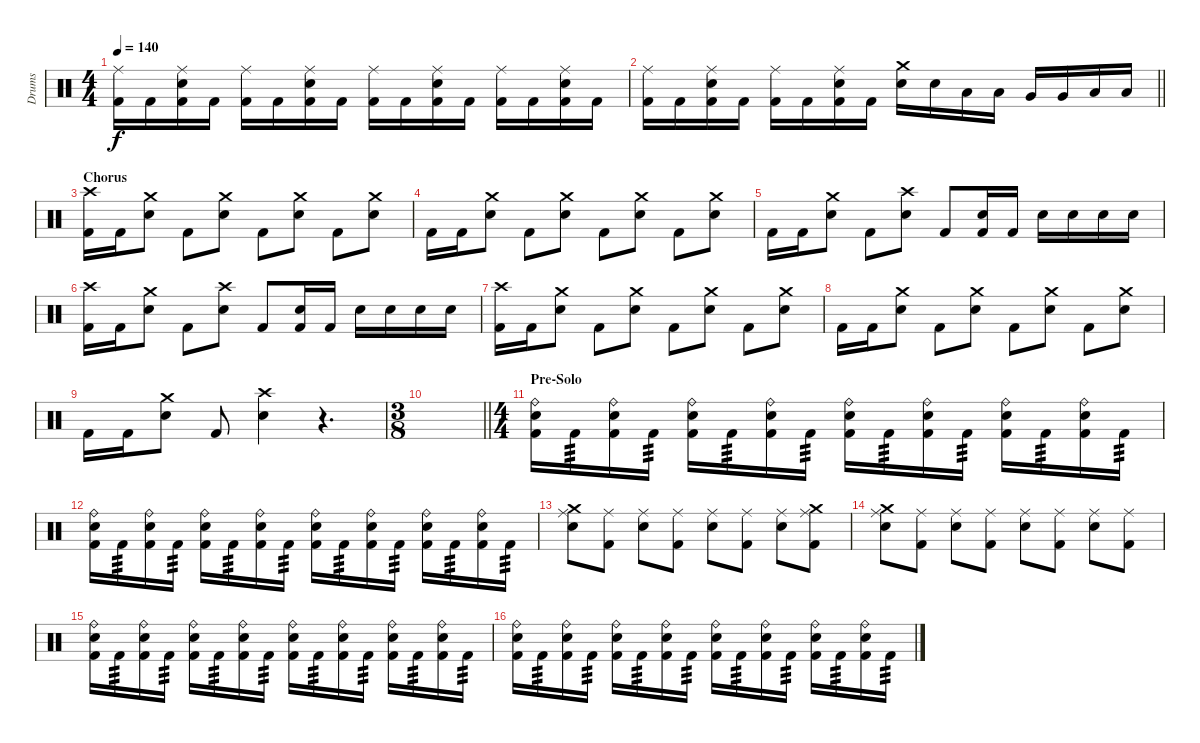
\track ("Drums" "Drums") {instrument percussion}
\staff {score}
\articulation defaults
\ts (4 4)
\tempo 140
\clef neutral
\ks c
("Kick (hit) 2" "Ride (middle)").16{dy f} "Kick (hit) 2".16 ("Snare (hit) 2" "Kick (hit) 2" "Ride (middle)").16 "Kick (hit) 2".16 ("Kick (hit) 2" "Ride (middle)").16 "Kick (hit) 2".16 ("Snare (hit) 2" "Kick (hit) 2" "Ride (middle)").16 "Kick (hit) 2".16 ("Kick (hit) 2" "Ride (middle)").16 "Kick (hit) 2".16 ("Snare (hit) 2" "Kick (hit) 2" "Ride (middle)").16 "Kick (hit) 2".16 ("Kick (hit) 2" "Ride (middle)").16 "Kick (hit) 2".16 ("Snare (hit) 2" "Kick (hit) 2" "Ride (middle)").16 "Kick (hit) 2".16 |
\barLineRight lightlight
("Kick (hit) 2" "Ride (middle)").16 "Kick (hit) 2".16 ("Snare (hit) 2" "Kick (hit) 2" "Ride (middle)").16 "Kick (hit) 2".16 ("Kick (hit) 2" "Ride (middle)").16 "Kick (hit) 2".16 ("Snare (hit) 2" "Kick (hit) 2" "Ride (middle)").16 "Kick (hit) 2".16 ("Snare (hit) 2" "Crash medium (hit)").16 "Snare (hit) 2".16 "Low Tom (hit)".16 "Low Tom (hit)".16 "Very Low Tom (hit)".16 "Very Low Tom (hit)".16 "Low Floor Tom (hit)".16 "Low Floor Tom (hit)".16 |
\section ("" "Chorus")
("Kick (hit) 2" "Crash high (hit)").16 "Kick (hit) 2".16 ("Snare (hit) 2" "Crash medium (hit)").8 "Kick (hit) 2".8 ("Snare (hit) 2" "Crash medium (hit)").8 "Kick (hit) 2".8 ("Snare (hit) 2" "Crash medium (hit)").8 "Kick (hit) 2".8 ("Snare (hit) 2" "Crash medium (hit)").8 |
"Kick (hit) 2".16 "Kick (hit) 2".16 ("Snare (hit) 2" "Crash medium (hit)").8 "Kick (hit) 2".8 ("Snare (hit) 2" "Crash medium (hit)").8 "Kick (hit) 2".8 ("Snare (hit) 2" "Crash medium (hit)").8 "Kick (hit) 2".8 ("Snare (hit) 2" "Crash medium (hit)").8 |
"Kick (hit) 2".16 "Kick (hit) 2".16 ("Snare (hit) 2" "Crash medium (hit)").8 "Kick (hit) 2".8 ("Snare (hit) 2" "Crash high (hit)").8 "Kick (hit) 2".8 ("Snare (hit) 2" "Kick (hit) 2").16 "Kick (hit) 2".16 "Snare (hit) 2".16 "Snare (hit) 2".16 "Snare (hit) 2".16 "Snare (hit) 2".16 |
("Kick (hit) 2" "Crash high (hit)").16 "Kick (hit) 2".16 ("Snare (hit) 2" "Crash medium (hit)").8 "Kick (hit) 2".8 ("Snare (hit) 2" "Crash high (hit)").8 "Kick (hit) 2".8 ("Snare (hit) 2" "Kick (hit) 2").16 "Kick (hit) 2".16 "Snare (hit) 2".16 "Snare (hit) 2".16 "Snare (hit) 2".16 "Snare (hit) 2".16 |
("Kick (hit) 2" "Crash high (hit)").16 "Kick (hit) 2".16 ("Snare (hit) 2" "Crash medium (hit)").8 "Kick (hit) 2".8 ("Snare (hit) 2" "Crash medium (hit)").8 "Kick (hit) 2".8 ("Snare (hit) 2" "Crash medium (hit)").8 "Kick (hit) 2".8 ("Snare (hit) 2" "Crash medium (hit)").8 |
"Kick (hit) 2".16 "Kick (hit) 2".16 ("Snare (hit) 2" "Crash medium (hit)").8 "Kick (hit) 2".8 ("Snare (hit) 2" "Crash medium (hit)").8 "Kick (hit) 2".8 ("Snare (hit) 2" "Crash medium (hit)").8 "Kick (hit) 2".8 ("Snare (hit) 2" "Crash medium (hit)").8 |
"Kick (hit) 2".16 "Kick (hit) 2".16 ("Snare (hit) 2" "Crash medium (hit)").8 "Kick (hit) 2".8 ("Snare (hit) 2" "Crash high (hit)").4 r.4{d} |
\ts (3 8)
\barLineRight lightlight
|
\ts (4 4)
\section ("" "Pre-Solo")
("Snare (hit) 2" "Kick (hit) 2" "Ride (bell)").16 "Kick (hit) 2".16{tp 3} ("Snare (hit) 2" "Kick (hit) 2" "Ride (bell)").16 "Kick (hit) 2".16{tp 3} ("Snare (hit) 2" "Kick (hit) 2" "Ride (bell)").16 "Kick (hit) 2".16{tp 3} ("Snare (hit) 2" "Kick (hit) 2" "Ride (bell)").16 "Kick (hit) 2".16{tp 3} ("Snare (hit) 2" "Kick (hit) 2" "Ride (bell)").16 "Kick (hit) 2".16{tp 3} ("Snare (hit) 2" "Kick (hit) 2" "Ride (bell)").16 "Kick (hit) 2".16{tp 3} ("Snare (hit) 2" "Kick (hit) 2" "Ride (bell)").16 "Kick (hit) 2".16{tp 3} ("Snare (hit) 2" "Kick (hit) 2" "Ride (bell)").16 "Kick (hit) 2".16{tp 3} |
("Snare (hit) 2" "Kick (hit) 2" "Ride (bell)").16 "Kick (hit) 2".16{tp 3} ("Snare (hit) 2" "Kick (hit) 2" "Ride (bell)").16 "Kick (hit) 2".16{tp 3} ("Snare (hit) 2" "Kick (hit) 2" "Ride (bell)").16 "Kick (hit) 2".16{tp 3} ("Snare (hit) 2" "Kick (hit) 2" "Ride (bell)").16 "Kick (hit) 2".16{tp 3} ("Snare (hit) 2" "Kick (hit) 2" "Ride (bell)").16 "Kick (hit) 2".16{tp 3} ("Snare (hit) 2" "Kick (hit) 2" "Ride (bell)").16 "Kick (hit) 2".16{tp 3} ("Snare (hit) 2" "Kick (hit) 2" "Ride (bell)").16 "Kick (hit) 2".16{tp 3} ("Snare (hit) 2" "Kick (hit) 2" "Ride (bell)").16 "Kick (hit) 2".16{tp 3} |
("Snare (hit) 2" "Ride (middle)" "Crash medium (hit)").8 ("Kick (hit) 2" "Ride (middle)").8 ("Snare (hit) 2" "Ride (middle)").8 ("Kick (hit) 2" "Ride (middle)").8 ("Snare (hit) 2" "Ride (middle)").8 ("Kick (hit) 2" "Ride (middle)").8 ("Snare (hit) 2" "Ride (middle)").8 ("Kick (hit) 2" "Ride (middle)" "Crash medium (hit)").8 |
("Snare (hit) 2" "Ride (middle)" "Crash medium (hit)").8 ("Kick (hit) 2" "Ride (middle)").8 ("Snare (hit) 2" "Ride (middle)").8 ("Kick (hit) 2" "Ride (middle)").8 ("Snare (hit) 2" "Ride (middle)").8 ("Kick (hit) 2" "Ride (middle)").8 ("Snare (hit) 2" "Ride (middle)").8 ("Kick (hit) 2" "Ride (middle)").8 |
("Snare (hit) 2" "Kick (hit) 2" "Ride (bell)").16 "Kick (hit) 2".16{tp 3} ("Snare (hit) 2" "Kick (hit) 2" "Ride (bell)").16 "Kick (hit) 2".16{tp 3} ("Snare (hit) 2" "Kick (hit) 2" "Ride (bell)").16 "Kick (hit) 2".16{tp 3} ("Snare (hit) 2" "Kick (hit) 2" "Ride (bell)").16 "Kick (hit) 2".16{tp 3} ("Snare (hit) 2" "Kick (hit) 2" "Ride (bell)").16 "Kick (hit) 2".16{tp 3} ("Snare (hit) 2" "Kick (hit) 2" "Ride (bell)").16 "Kick (hit) 2".16{tp 3} ("Snare (hit) 2" "Kick (hit) 2" "Ride (bell)").16 "Kick (hit) 2".16{tp 3} ("Snare (hit) 2" "Kick (hit) 2" "Ride (bell)").16 "Kick (hit) 2".16{tp 3} |
("Snare (hit) 2" "Kick (hit) 2" "Ride (bell)").16 "Kick (hit) 2".16{tp 3} ("Snare (hit) 2" "Kick (hit) 2" "Ride (bell)").16 "Kick (hit) 2".16{tp 3} ("Snare (hit) 2" "Kick (hit) 2" "Ride (bell)").16 "Kick (hit) 2".16{tp 3} ("Snare (hit) 2" "Kick (hit) 2" "Ride (bell)").16 "Kick (hit) 2".16{tp 3} ("Snare (hit) 2" "Kick (hit) 2" "Ride (bell)").16 "Kick (hit) 2".16{tp 3} ("Snare (hit) 2" "Kick (hit) 2" "Ride (bell)").16 "Kick (hit) 2".16{tp 3} ("Snare (hit) 2" "Kick (hit) 2" "Ride (bell)").16 "Kick (hit) 2".16{tp 3} ("Snare (hit) 2" "Kick (hit) 2" "Ride (bell)").16 "Kick (hit) 2".16{tp 3}
